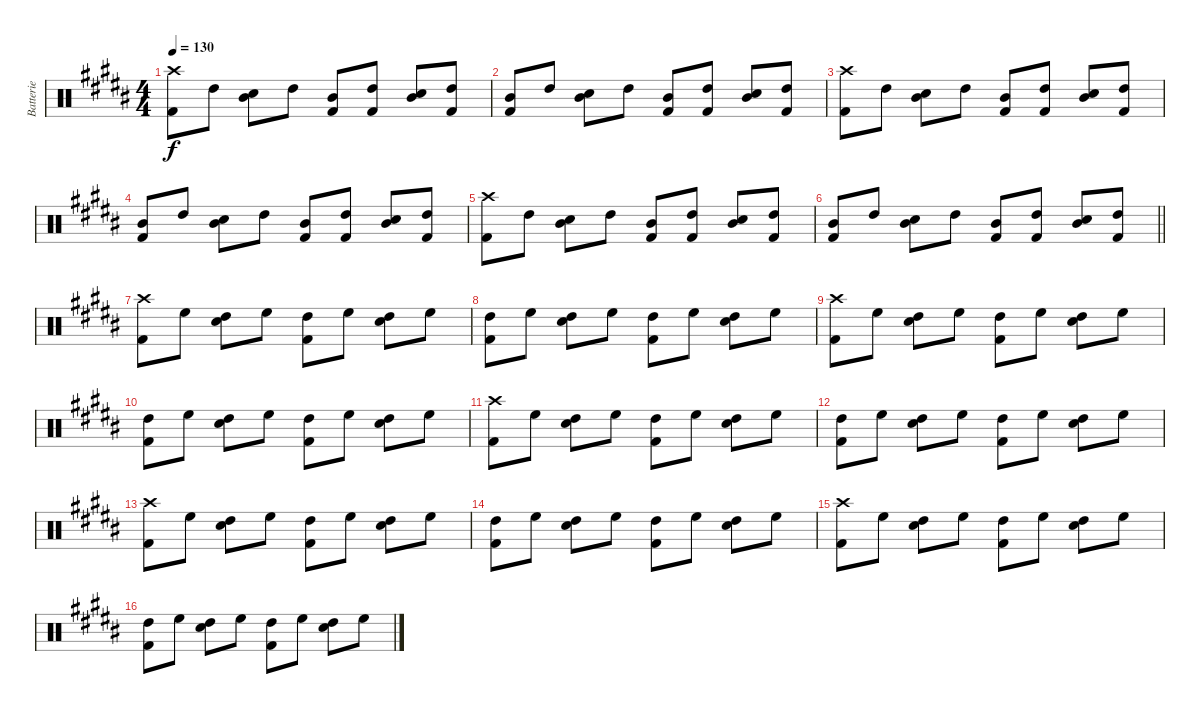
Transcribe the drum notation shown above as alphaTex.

\track ("Batterie" "Batterie") {instrument percussion}
\staff {score}
\articulation defaults
\ts (4 4)
\tempo 130
\clef neutral
\ks b
("Crash high (hit)" "Kick (hit) 2").8{dy f} "High Tom (hit)".8 ("Mid Tom (hit)" "Snare (hit) 2").8 "High Tom (hit)".8 ("Mid Tom (hit)" "Kick (hit) 2").8 ("High Tom (hit)" "Kick (hit) 2").8 ("Mid Tom (hit)" "Snare (hit) 2").8 ("High Tom (hit)" "Kick (hit) 2").8 |
("Mid Tom (hit)" "Kick (hit) 2").8 "High Tom (hit)".8 ("Mid Tom (hit)" "Snare (hit) 2").8 "High Tom (hit)".8 ("Mid Tom (hit)" "Kick (hit) 2").8 ("High Tom (hit)" "Kick (hit) 2").8 ("Mid Tom (hit)" "Snare (hit) 2").8 ("High Tom (hit)" "Kick (hit) 2").8 |
("Crash high (hit)" "Kick (hit) 2").8 "High Tom (hit)".8 ("Mid Tom (hit)" "Snare (hit) 2").8 "High Tom (hit)".8 ("Mid Tom (hit)" "Kick (hit) 2").8 ("High Tom (hit)" "Kick (hit) 2").8 ("Mid Tom (hit)" "Snare (hit) 2").8 ("High Tom (hit)" "Kick (hit) 2").8 |
("Mid Tom (hit)" "Kick (hit) 2").8 "High Tom (hit)".8 ("Mid Tom (hit)" "Snare (hit) 2").8 "High Tom (hit)".8 ("Mid Tom (hit)" "Kick (hit) 2").8 ("High Tom (hit)" "Kick (hit) 2").8 ("Mid Tom (hit)" "Snare (hit) 2").8 ("High Tom (hit)" "Kick (hit) 2").8 |
("Crash high (hit)" "Kick (hit) 2").8 "High Tom (hit)".8 ("Mid Tom (hit)" "Snare (hit) 2").8 "High Tom (hit)".8 ("Mid Tom (hit)" "Kick (hit) 2").8 ("High Tom (hit)" "Kick (hit) 2").8 ("Mid Tom (hit)" "Snare (hit) 2").8 ("High Tom (hit)" "Kick (hit) 2").8 |
\barLineRight lightlight
("Mid Tom (hit)" "Kick (hit) 2").8 "High Tom (hit)".8 ("Mid Tom (hit)" "Snare (hit) 2").8 "High Tom (hit)".8 ("Mid Tom (hit)" "Kick (hit) 2").8 ("High Tom (hit)" "Kick (hit) 2").8 ("Mid Tom (hit)" "Snare (hit) 2").8 ("High Tom (hit)" "Kick (hit) 2").8 |
("Crash high (hit)" "Kick (hit) 2").8 "High Floor Tom (hit)".8 ("High Tom (hit)" "Snare (hit) 2").8 "High Floor Tom (hit)".8 ("High Tom (hit)" "Kick (hit) 2").8 "High Floor Tom (hit)".8 ("High Tom (hit)" "Snare (hit) 2").8 "High Floor Tom (hit)".8 |
("High Tom (hit)" "Kick (hit) 2").8 "High Floor Tom (hit)".8 ("High Tom (hit)" "Snare (hit) 2").8 "High Floor Tom (hit)".8 ("High Tom (hit)" "Kick (hit) 2").8 "High Floor Tom (hit)".8 ("High Tom (hit)" "Snare (hit) 2").8 "High Floor Tom (hit)".8 |
("Crash high (hit)" "Kick (hit) 2").8 "High Floor Tom (hit)".8 ("High Tom (hit)" "Snare (hit) 2").8 "High Floor Tom (hit)".8 ("High Tom (hit)" "Kick (hit) 2").8 "High Floor Tom (hit)".8 ("High Tom (hit)" "Snare (hit) 2").8 "High Floor Tom (hit)".8 |
("High Tom (hit)" "Kick (hit) 2").8 "High Floor Tom (hit)".8 ("High Tom (hit)" "Snare (hit) 2").8 "High Floor Tom (hit)".8 ("High Tom (hit)" "Kick (hit) 2").8 "High Floor Tom (hit)".8 ("High Tom (hit)" "Snare (hit) 2").8 "High Floor Tom (hit)".8 |
("Crash high (hit)" "Kick (hit) 2").8 "High Floor Tom (hit)".8 ("High Tom (hit)" "Snare (hit) 2").8 "High Floor Tom (hit)".8 ("High Tom (hit)" "Kick (hit) 2").8 "High Floor Tom (hit)".8 ("High Tom (hit)" "Snare (hit) 2").8 "High Floor Tom (hit)".8 |
("High Tom (hit)" "Kick (hit) 2").8 "High Floor Tom (hit)".8 ("High Tom (hit)" "Snare (hit) 2").8 "High Floor Tom (hit)".8 ("High Tom (hit)" "Kick (hit) 2").8 "High Floor Tom (hit)".8 ("High Tom (hit)" "Snare (hit) 2").8 "High Floor Tom (hit)".8 |
("Crash high (hit)" "Kick (hit) 2").8 "High Floor Tom (hit)".8 ("High Tom (hit)" "Snare (hit) 2").8 "High Floor Tom (hit)".8 ("High Tom (hit)" "Kick (hit) 2").8 "High Floor Tom (hit)".8 ("High Tom (hit)" "Snare (hit) 2").8 "High Floor Tom (hit)".8 |
("High Tom (hit)" "Kick (hit) 2").8 "High Floor Tom (hit)".8 ("High Tom (hit)" "Snare (hit) 2").8 "High Floor Tom (hit)".8 ("High Tom (hit)" "Kick (hit) 2").8 "High Floor Tom (hit)".8 ("High Tom (hit)" "Snare (hit) 2").8 "High Floor Tom (hit)".8 |
("Crash high (hit)" "Kick (hit) 2").8 "High Floor Tom (hit)".8 ("High Tom (hit)" "Snare (hit) 2").8 "High Floor Tom (hit)".8 ("High Tom (hit)" "Kick (hit) 2").8 "High Floor Tom (hit)".8 ("High Tom (hit)" "Snare (hit) 2").8 "High Floor Tom (hit)".8 |
("High Tom (hit)" "Kick (hit) 2").8 "High Floor Tom (hit)".8 ("High Tom (hit)" "Snare (hit) 2").8 "High Floor Tom (hit)".8 ("High Tom (hit)" "Kick (hit) 2").8 "High Floor Tom (hit)".8 ("High Tom (hit)" "Snare (hit) 2").8 "High Floor Tom (hit)".8
